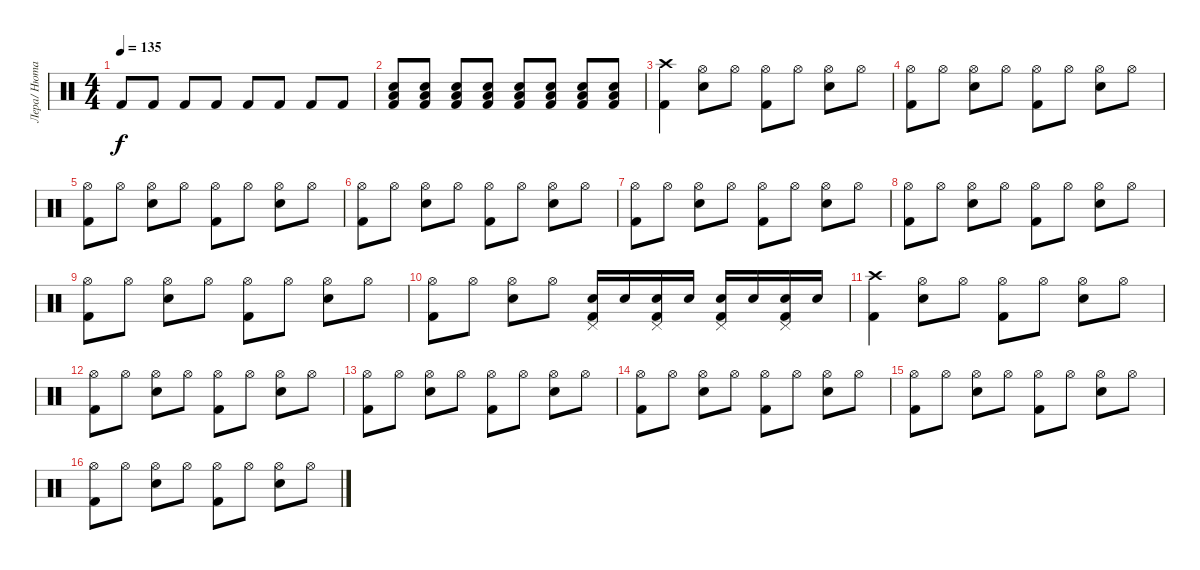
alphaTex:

\track ("Лера/ Нюта" "Лера/ Нюта") {instrument percussion}
\staff {score}
\articulation defaults
\ts (4 4)
\tempo 135
\clef neutral
\ks c "Kick (hit) 2".8{dy f} "Kick (hit) 2".8 "Kick (hit) 2".8 "Kick (hit) 2".8 "Kick (hit) 2".8 "Kick (hit) 2".8 "Kick (hit) 2".8 "Kick (hit) 2".8
|
("Electric Snare (hit)" "Low Tom (hit)" "Kick (hit) 2").8 ("Electric Snare (hit)" "Low Tom (hit)" "Kick (hit) 2").8 ("Electric Snare (hit)" "Low Tom (hit)" "Kick (hit) 2").8 ("Electric Snare (hit)" "Low Tom (hit)" "Kick (hit) 2").8 ("Electric Snare (hit)" "Low Tom (hit)" "Kick (hit) 2").8 ("Electric Snare (hit)" "Low Tom (hit)" "Kick (hit) 2").8 ("Electric Snare (hit)" "Low Tom (hit)" "Kick (hit) 2").8 ("Electric Snare (hit)" "Low Tom (hit)" "Kick (hit) 2").8 |
("Crash high (hit)" "Kick (hit) 2").4 ("Hi-Hat (open)" "Electric Snare (hit)").8 "Hi-Hat (open)".8 ("Hi-Hat (open)" "Kick (hit) 2").8 "Hi-Hat (open)".8 ("Hi-Hat (open)" "Electric Snare (hit)").8 "Hi-Hat (open)".8 |
("Hi-Hat (open)" "Kick (hit) 2").8 "Hi-Hat (open)".8 ("Hi-Hat (open)" "Electric Snare (hit)").8 "Hi-Hat (open)".8 ("Hi-Hat (open)" "Kick (hit) 2").8 "Hi-Hat (open)".8 ("Hi-Hat (open)" "Electric Snare (hit)").8 "Hi-Hat (open)".8 |
("Hi-Hat (open)" "Kick (hit) 2").8 "Hi-Hat (open)".8 ("Hi-Hat (open)" "Electric Snare (hit)").8 "Hi-Hat (open)".8 ("Hi-Hat (open)" "Kick (hit) 2").8 "Hi-Hat (open)".8 ("Hi-Hat (open)" "Electric Snare (hit)").8 "Hi-Hat (open)".8 |
("Hi-Hat (open)" "Kick (hit) 2").8 "Hi-Hat (open)".8 ("Hi-Hat (open)" "Electric Snare (hit)").8 "Hi-Hat (open)".8 ("Hi-Hat (open)" "Kick (hit) 2").8 "Hi-Hat (open)".8 ("Hi-Hat (open)" "Electric Snare (hit)").8 "Hi-Hat (open)".8 |
("Hi-Hat (open)" "Kick (hit) 2").8 "Hi-Hat (open)".8 ("Hi-Hat (open)" "Electric Snare (hit)").8 "Hi-Hat (open)".8 ("Hi-Hat (open)" "Kick (hit) 2").8 "Hi-Hat (open)".8 ("Hi-Hat (open)" "Electric Snare (hit)").8 "Hi-Hat (open)".8 |
("Hi-Hat (open)" "Kick (hit) 2").8 "Hi-Hat (open)".8 ("Hi-Hat (open)" "Electric Snare (hit)").8 "Hi-Hat (open)".8 ("Hi-Hat (open)" "Kick (hit) 2").8 "Hi-Hat (open)".8 ("Hi-Hat (open)" "Electric Snare (hit)").8 "Hi-Hat (open)".8 |
("Hi-Hat (open)" "Kick (hit) 2").8 "Hi-Hat (open)".8 ("Hi-Hat (open)" "Electric Snare (hit)").8 "Hi-Hat (open)".8 ("Hi-Hat (open)" "Kick (hit) 2").8 "Hi-Hat (open)".8 ("Hi-Hat (open)" "Electric Snare (hit)").8 "Hi-Hat (open)".8 |
("Hi-Hat (open)" "Kick (hit) 2").8 "Hi-Hat (open)".8 ("Hi-Hat (open)" "Electric Snare (hit)").8 "Hi-Hat (open)".8 ("Electric Snare (hit)" "Kick (hit) 2" "Pedal Hi-Hat (hit)").16 "Electric Snare (hit)".16 ("Electric Snare (hit)" "Kick (hit) 2" "Pedal Hi-Hat (hit)").16 "Electric Snare (hit)".16 ("Electric Snare (hit)" "Kick (hit) 2" "Pedal Hi-Hat (hit)").16 "Electric Snare (hit)".16 ("Electric Snare (hit)" "Kick (hit) 2" "Pedal Hi-Hat (hit)").16 "Electric Snare (hit)".16 |
("Crash high (hit)" "Kick (hit) 2").4 ("Hi-Hat (open)" "Electric Snare (hit)").8 "Hi-Hat (open)".8 ("Hi-Hat (open)" "Kick (hit) 2").8 "Hi-Hat (open)".8 ("Hi-Hat (open)" "Electric Snare (hit)").8 "Hi-Hat (open)".8 |
("Hi-Hat (open)" "Kick (hit) 2").8 "Hi-Hat (open)".8 ("Hi-Hat (open)" "Electric Snare (hit)").8 "Hi-Hat (open)".8 ("Hi-Hat (open)" "Kick (hit) 2").8 "Hi-Hat (open)".8 ("Hi-Hat (open)" "Electric Snare (hit)").8 "Hi-Hat (open)".8 |
("Hi-Hat (open)" "Kick (hit) 2").8 "Hi-Hat (open)".8 ("Hi-Hat (open)" "Electric Snare (hit)").8 "Hi-Hat (open)".8 ("Hi-Hat (open)" "Kick (hit) 2").8 "Hi-Hat (open)".8 ("Hi-Hat (open)" "Electric Snare (hit)").8 "Hi-Hat (open)".8 |
("Hi-Hat (open)" "Kick (hit) 2").8 "Hi-Hat (open)".8 ("Hi-Hat (open)" "Electric Snare (hit)").8 "Hi-Hat (open)".8 ("Hi-Hat (open)" "Kick (hit) 2").8 "Hi-Hat (open)".8 ("Hi-Hat (open)" "Electric Snare (hit)").8 "Hi-Hat (open)".8 |
("Hi-Hat (open)" "Kick (hit) 2").8 "Hi-Hat (open)".8 ("Hi-Hat (open)" "Electric Snare (hit)").8 "Hi-Hat (open)".8 ("Hi-Hat (open)" "Kick (hit) 2").8 "Hi-Hat (open)".8 ("Hi-Hat (open)" "Electric Snare (hit)").8 "Hi-Hat (open)".8 |
("Hi-Hat (open)" "Kick (hit) 2").8 "Hi-Hat (open)".8 ("Hi-Hat (open)" "Electric Snare (hit)").8 "Hi-Hat (open)".8 ("Hi-Hat (open)" "Kick (hit) 2").8 "Hi-Hat (open)".8 ("Hi-Hat (open)" "Electric Snare (hit)").8 "Hi-Hat (open)".8
